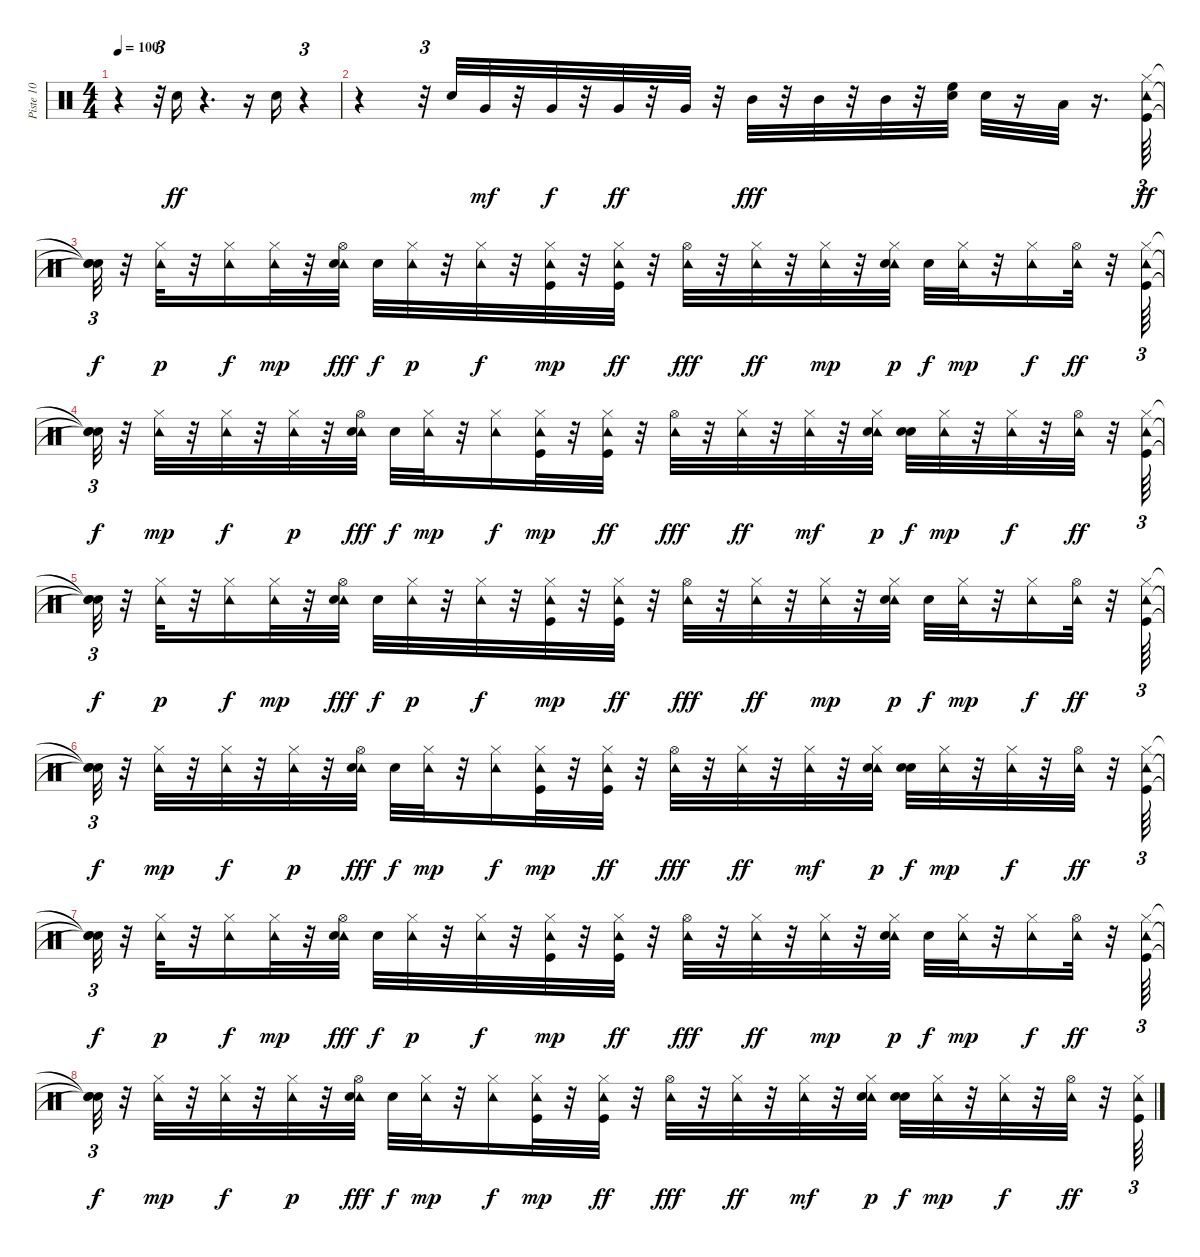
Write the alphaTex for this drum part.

\track ("Piste 10" "Piste 10") {instrument percussion}
\staff {score}
\articulation defaults
\ts (4 4)
\tempo 100
\clef neutral
\ks c
r.4{dy fff} r.32{tu (3 2)} "Hand Clap (hit)".16{dy ff} r.4{d} r.16 "Hand Clap (hit)".16 r.4{tu (3 2)} |
r.4 r.32{tu (3 2)} "Hand Clap (hit)".32 "Very Low Tom (hit)".32{dy mf} r.32 "Very Low Tom (hit)".32{dy f} r.32 "Very Low Tom (hit)".32{dy ff} r.32 "Very Low Tom (hit)".32 r.32 "Mid Tom (hit)".32{dy fff} r.32 "Mid Tom (hit)".32 r.32 "Mid Tom (hit)".32 r.32 ("High Floor Tom (hit)" "Electric Snare (hit)").32 "Hand Clap (hit)".32 r.16 "Low Tom (hit)".32 r.16{d} ("Tambourine (hit)" "Kick (hit)" "Hi-Hat (closed)").64{tu (3 2) dy ff} |
("Snare (hit)"{t} "Snare (hit)"{t} "Snare (hit)"{t}).32{tu (3 2) dy f} r.32 ("Tambourine (hit)" "Hi-Hat (closed)").32{dy p} r.32 ("Tambourine (hit)" "Hi-Hat (closed)").16{dy f} ("Tambourine (hit)" "Hi-Hat (closed)").32{dy mp} r.32 ("Tambourine (hit)" "Hi-Hat (open)" "Electric Snare (hit)").32{dy fff} "Hand Clap (hit)".32{dy f} ("Tambourine (hit)" "Hi-Hat (closed)").32{dy p} r.32 ("Tambourine (hit)" "Hi-Hat (closed)").32{dy f} r.32 ("Tambourine (hit)" "Hi-Hat (closed)" "Kick (hit)").32{dy mp} r.32 ("Tambourine (hit)" "Hi-Hat (closed)" "Kick (hit)").32{dy ff} r.32 ("Tambourine (hit)" "Hi-Hat (open)").32{dy fff} r.32 ("Tambourine (hit)" "Hi-Hat (closed)").32{dy ff} r.32 ("Tambourine (hit)" "Hi-Hat (closed)").32{dy mp} r.32 ("Tambourine (hit)" "Hi-Hat (closed)" "Electric Snare (hit)").32{dy p} "Hand Clap (hit)".32{dy f} ("Tambourine (hit)" "Hi-Hat (closed)").32{dy mp} r.32 ("Tambourine (hit)" "Hi-Hat (closed)").16{dy f} ("Tambourine (hit)" "Hi-Hat (open)").32{dy ff} r.32 ("Tambourine (hit)" "Kick (hit)" "Hi-Hat (closed)").64{tu (3 2)} |
("Snare (hit)"{t} "Snare (hit)"{t} "Snare (hit)"{t}).32{tu (3 2) dy f} r.32 ("Tambourine (hit)" "Hi-Hat (closed)").32{dy mp} r.32 ("Tambourine (hit)" "Hi-Hat (closed)").32{dy f} r.32 ("Tambourine (hit)" "Hi-Hat (closed)").32{dy p} r.32 ("Tambourine (hit)" "Hi-Hat (open)" "Electric Snare (hit)").32{dy fff} "Hand Clap (hit)".32{dy f} ("Tambourine (hit)" "Hi-Hat (closed)").32{dy mp} r.32 ("Tambourine (hit)" "Hi-Hat (closed)").16{dy f} ("Tambourine (hit)" "Hi-Hat (closed)" "Kick (hit)").32{dy mp} r.32 ("Tambourine (hit)" "Kick (hit)" "Hi-Hat (closed)").32{dy ff} r.32 ("Tambourine (hit)" "Hi-Hat (open)").32{dy fff} r.32 ("Tambourine (hit)" "Hi-Hat (closed)").32{dy ff} r.32 ("Tambourine (hit)" "Hi-Hat (closed)").32{dy mf} r.32 ("Tambourine (hit)" "Hi-Hat (closed)" "Electric Snare (hit)").32{dy p} ("Hand Clap (hit)" "Hand Clap (hit)").32{dy f} ("Tambourine (hit)" "Hi-Hat (closed)").32{dy mp} r.32 ("Tambourine (hit)" "Hi-Hat (closed)").32{dy f} r.32 ("Tambourine (hit)" "Hi-Hat (open)").32{dy ff} r.32 ("Tambourine (hit)" "Kick (hit)" "Hi-Hat (closed)").64{tu (3 2)} |
("Snare (hit)"{t} "Snare (hit)"{t} "Snare (hit)"{t}).32{tu (3 2) dy f} r.32 ("Tambourine (hit)" "Hi-Hat (closed)").32{dy p} r.32 ("Tambourine (hit)" "Hi-Hat (closed)").16{dy f} ("Tambourine (hit)" "Hi-Hat (closed)").32{dy mp} r.32 ("Tambourine (hit)" "Hi-Hat (open)" "Electric Snare (hit)").32{dy fff} "Hand Clap (hit)".32{dy f} ("Tambourine (hit)" "Hi-Hat (closed)").32{dy p} r.32 ("Tambourine (hit)" "Hi-Hat (closed)").32{dy f} r.32 ("Tambourine (hit)" "Hi-Hat (closed)" "Kick (hit)").32{dy mp} r.32 ("Tambourine (hit)" "Hi-Hat (closed)" "Kick (hit)").32{dy ff} r.32 ("Tambourine (hit)" "Hi-Hat (open)").32{dy fff} r.32 ("Tambourine (hit)" "Hi-Hat (closed)").32{dy ff} r.32 ("Tambourine (hit)" "Hi-Hat (closed)").32{dy mp} r.32 ("Tambourine (hit)" "Hi-Hat (closed)" "Electric Snare (hit)").32{dy p} "Hand Clap (hit)".32{dy f} ("Tambourine (hit)" "Hi-Hat (closed)").32{dy mp} r.32 ("Tambourine (hit)" "Hi-Hat (closed)").16{dy f} ("Tambourine (hit)" "Hi-Hat (open)").32{dy ff} r.32 ("Tambourine (hit)" "Kick (hit)" "Hi-Hat (closed)").64{tu (3 2)} |
("Snare (hit)"{t} "Snare (hit)"{t} "Snare (hit)"{t}).32{tu (3 2) dy f} r.32 ("Tambourine (hit)" "Hi-Hat (closed)").32{dy mp} r.32 ("Tambourine (hit)" "Hi-Hat (closed)").32{dy f} r.32 ("Tambourine (hit)" "Hi-Hat (closed)").32{dy p} r.32 ("Tambourine (hit)" "Hi-Hat (open)" "Electric Snare (hit)").32{dy fff} "Hand Clap (hit)".32{dy f} ("Tambourine (hit)" "Hi-Hat (closed)").32{dy mp} r.32 ("Tambourine (hit)" "Hi-Hat (closed)").16{dy f} ("Tambourine (hit)" "Hi-Hat (closed)" "Kick (hit)").32{dy mp} r.32 ("Tambourine (hit)" "Kick (hit)" "Hi-Hat (closed)").32{dy ff} r.32 ("Tambourine (hit)" "Hi-Hat (open)").32{dy fff} r.32 ("Tambourine (hit)" "Hi-Hat (closed)").32{dy ff} r.32 ("Tambourine (hit)" "Hi-Hat (closed)").32{dy mf} r.32 ("Tambourine (hit)" "Hi-Hat (closed)" "Electric Snare (hit)").32{dy p} ("Hand Clap (hit)" "Hand Clap (hit)").32{dy f} ("Tambourine (hit)" "Hi-Hat (closed)").32{dy mp} r.32 ("Tambourine (hit)" "Hi-Hat (closed)").32{dy f} r.32 ("Tambourine (hit)" "Hi-Hat (open)").32{dy ff} r.32 ("Tambourine (hit)" "Kick (hit)" "Hi-Hat (closed)").64{tu (3 2)} |
("Snare (hit)"{t} "Snare (hit)"{t} "Snare (hit)"{t}).32{tu (3 2) dy f} r.32 ("Tambourine (hit)" "Hi-Hat (closed)").32{dy p} r.32 ("Tambourine (hit)" "Hi-Hat (closed)").16{dy f} ("Tambourine (hit)" "Hi-Hat (closed)").32{dy mp} r.32 ("Tambourine (hit)" "Hi-Hat (open)" "Electric Snare (hit)").32{dy fff} "Hand Clap (hit)".32{dy f} ("Tambourine (hit)" "Hi-Hat (closed)").32{dy p} r.32 ("Tambourine (hit)" "Hi-Hat (closed)").32{dy f} r.32 ("Tambourine (hit)" "Hi-Hat (closed)" "Kick (hit)").32{dy mp} r.32 ("Tambourine (hit)" "Hi-Hat (closed)" "Kick (hit)").32{dy ff} r.32 ("Tambourine (hit)" "Hi-Hat (open)").32{dy fff} r.32 ("Tambourine (hit)" "Hi-Hat (closed)").32{dy ff} r.32 ("Tambourine (hit)" "Hi-Hat (closed)").32{dy mp} r.32 ("Tambourine (hit)" "Hi-Hat (closed)" "Electric Snare (hit)").32{dy p} "Hand Clap (hit)".32{dy f} ("Tambourine (hit)" "Hi-Hat (closed)").32{dy mp} r.32 ("Tambourine (hit)" "Hi-Hat (closed)").16{dy f} ("Tambourine (hit)" "Hi-Hat (open)").32{dy ff} r.32 ("Tambourine (hit)" "Kick (hit)" "Hi-Hat (closed)").64{tu (3 2)} |
("Snare (hit)"{t} "Snare (hit)"{t} "Snare (hit)"{t}).32{tu (3 2) dy f} r.32 ("Tambourine (hit)" "Hi-Hat (closed)").32{dy mp} r.32 ("Tambourine (hit)" "Hi-Hat (closed)").32{dy f} r.32 ("Tambourine (hit)" "Hi-Hat (closed)").32{dy p} r.32 ("Tambourine (hit)" "Hi-Hat (open)" "Electric Snare (hit)").32{dy fff} "Hand Clap (hit)".32{dy f} ("Tambourine (hit)" "Hi-Hat (closed)").32{dy mp} r.32 ("Tambourine (hit)" "Hi-Hat (closed)").16{dy f} ("Tambourine (hit)" "Hi-Hat (closed)" "Kick (hit)").32{dy mp} r.32 ("Tambourine (hit)" "Kick (hit)" "Hi-Hat (closed)").32{dy ff} r.32 ("Tambourine (hit)" "Hi-Hat (open)").32{dy fff} r.32 ("Tambourine (hit)" "Hi-Hat (closed)").32{dy ff} r.32 ("Tambourine (hit)" "Hi-Hat (closed)").32{dy mf} r.32 ("Tambourine (hit)" "Hi-Hat (closed)" "Electric Snare (hit)").32{dy p} ("Hand Clap (hit)" "Hand Clap (hit)").32{dy f} ("Tambourine (hit)" "Hi-Hat (closed)").32{dy mp} r.32 ("Tambourine (hit)" "Hi-Hat (closed)").32{dy f} r.32 ("Tambourine (hit)" "Hi-Hat (open)").32{dy ff} r.32 ("Tambourine (hit)" "Kick (hit)" "Hi-Hat (closed)").64{tu (3 2)}
